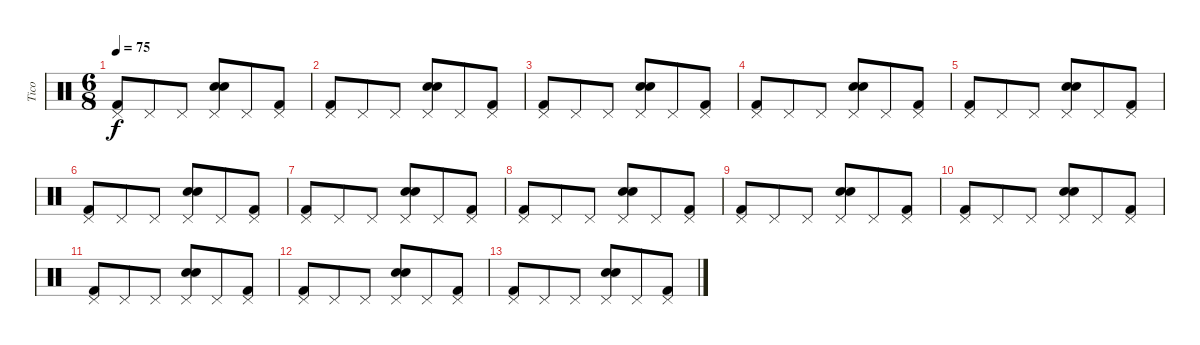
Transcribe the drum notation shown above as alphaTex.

\track ("Tico" "Tico") {instrument percussion}
\staff {score}
\articulation defaults
\ts (6 8)
\tempo 75
\clef neutral
\ks c
("Kick (hit) 2" "Pedal Hi-Hat (hit)").8{dy f} "Pedal Hi-Hat (hit)".8 "Pedal Hi-Hat (hit)".8 ("Electric Snare (hit)" "Snare (hit) 2" "Pedal Hi-Hat (hit)").8 "Pedal Hi-Hat (hit)".8 ("Kick (hit) 2" "Pedal Hi-Hat (hit)").8 |
("Kick (hit) 2" "Pedal Hi-Hat (hit)").8 "Pedal Hi-Hat (hit)".8 "Pedal Hi-Hat (hit)".8 ("Electric Snare (hit)" "Snare (hit) 2" "Pedal Hi-Hat (hit)").8 "Pedal Hi-Hat (hit)".8 ("Kick (hit) 2" "Pedal Hi-Hat (hit)").8 |
("Kick (hit) 2" "Pedal Hi-Hat (hit)").8 "Pedal Hi-Hat (hit)".8 "Pedal Hi-Hat (hit)".8 ("Electric Snare (hit)" "Snare (hit) 2" "Pedal Hi-Hat (hit)").8 "Pedal Hi-Hat (hit)".8 ("Kick (hit) 2" "Pedal Hi-Hat (hit)").8 |
("Kick (hit) 2" "Pedal Hi-Hat (hit)").8 "Pedal Hi-Hat (hit)".8 "Pedal Hi-Hat (hit)".8 ("Electric Snare (hit)" "Snare (hit) 2" "Pedal Hi-Hat (hit)").8 "Pedal Hi-Hat (hit)".8 ("Kick (hit) 2" "Pedal Hi-Hat (hit)").8 |
("Kick (hit) 2" "Pedal Hi-Hat (hit)").8 "Pedal Hi-Hat (hit)".8 "Pedal Hi-Hat (hit)".8 ("Electric Snare (hit)" "Snare (hit) 2" "Pedal Hi-Hat (hit)").8 "Pedal Hi-Hat (hit)".8 ("Kick (hit) 2" "Pedal Hi-Hat (hit)").8 |
("Kick (hit) 2" "Pedal Hi-Hat (hit)").8 "Pedal Hi-Hat (hit)".8 "Pedal Hi-Hat (hit)".8 ("Electric Snare (hit)" "Snare (hit) 2" "Pedal Hi-Hat (hit)").8 "Pedal Hi-Hat (hit)".8 ("Kick (hit) 2" "Pedal Hi-Hat (hit)").8 |
("Kick (hit) 2" "Pedal Hi-Hat (hit)").8 "Pedal Hi-Hat (hit)".8 "Pedal Hi-Hat (hit)".8 ("Electric Snare (hit)" "Snare (hit) 2" "Pedal Hi-Hat (hit)").8 "Pedal Hi-Hat (hit)".8 ("Kick (hit) 2" "Pedal Hi-Hat (hit)").8 |
("Kick (hit) 2" "Pedal Hi-Hat (hit)").8 "Pedal Hi-Hat (hit)".8 "Pedal Hi-Hat (hit)".8 ("Electric Snare (hit)" "Snare (hit) 2" "Pedal Hi-Hat (hit)").8 "Pedal Hi-Hat (hit)".8 ("Kick (hit) 2" "Pedal Hi-Hat (hit)").8 |
("Kick (hit) 2" "Pedal Hi-Hat (hit)").8 "Pedal Hi-Hat (hit)".8 "Pedal Hi-Hat (hit)".8 ("Electric Snare (hit)" "Snare (hit) 2" "Pedal Hi-Hat (hit)").8 "Pedal Hi-Hat (hit)".8 ("Kick (hit) 2" "Pedal Hi-Hat (hit)").8 |
("Kick (hit) 2" "Pedal Hi-Hat (hit)").8 "Pedal Hi-Hat (hit)".8 "Pedal Hi-Hat (hit)".8 ("Electric Snare (hit)" "Snare (hit) 2" "Pedal Hi-Hat (hit)").8 "Pedal Hi-Hat (hit)".8 ("Kick (hit) 2" "Pedal Hi-Hat (hit)").8 |
("Kick (hit) 2" "Pedal Hi-Hat (hit)").8 "Pedal Hi-Hat (hit)".8 "Pedal Hi-Hat (hit)".8 ("Electric Snare (hit)" "Snare (hit) 2" "Pedal Hi-Hat (hit)").8 "Pedal Hi-Hat (hit)".8 ("Kick (hit) 2" "Pedal Hi-Hat (hit)").8 |
("Kick (hit) 2" "Pedal Hi-Hat (hit)").8 "Pedal Hi-Hat (hit)".8 "Pedal Hi-Hat (hit)".8 ("Electric Snare (hit)" "Snare (hit) 2" "Pedal Hi-Hat (hit)").8 "Pedal Hi-Hat (hit)".8 ("Kick (hit) 2" "Pedal Hi-Hat (hit)").8 |
("Kick (hit) 2" "Pedal Hi-Hat (hit)").8 "Pedal Hi-Hat (hit)".8 "Pedal Hi-Hat (hit)".8 ("Electric Snare (hit)" "Snare (hit) 2" "Pedal Hi-Hat (hit)").8 "Pedal Hi-Hat (hit)".8 ("Kick (hit) 2" "Pedal Hi-Hat (hit)").8
